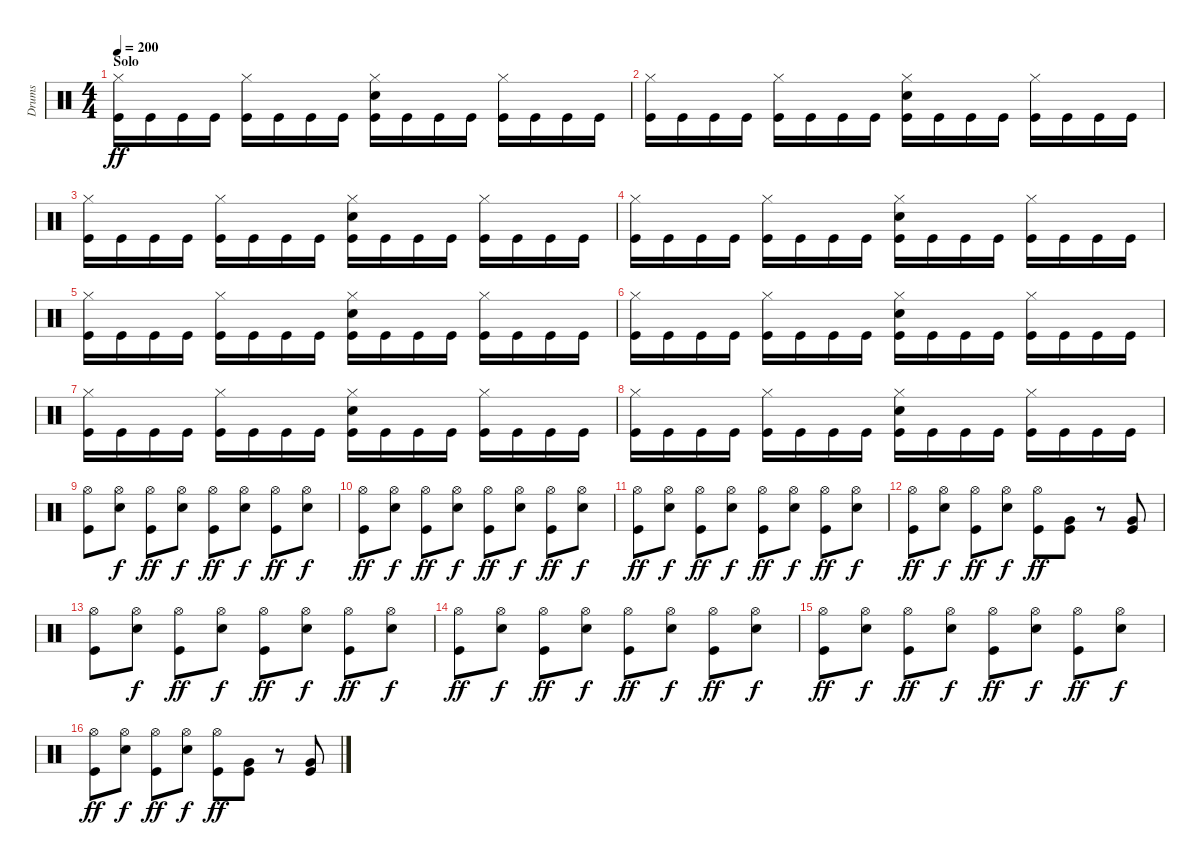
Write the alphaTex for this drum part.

\track ("Drums" "Drums") {instrument percussion}
\staff {score}
\articulation defaults
\ts (4 4)
\section ("" "Solo")
\tempo 200
\clef neutral
\ks c
("Hi-Hat (closed)" "Kick (hit)").16{dy ff} "Kick (hit)".16 "Kick (hit)".16 "Kick (hit)".16 ("Hi-Hat (closed)" "Kick (hit)").16 "Kick (hit)".16 "Kick (hit)".16 "Kick (hit)".16 ("Hi-Hat (closed)" "Electric Snare (hit)" "Kick (hit)").16 "Kick (hit)".16 "Kick (hit)".16 "Kick (hit)".16 ("Hi-Hat (closed)" "Kick (hit)").16 "Kick (hit)".16 "Kick (hit)".16 "Kick (hit)".16 |
("Hi-Hat (closed)" "Kick (hit)").16 "Kick (hit)".16 "Kick (hit)".16 "Kick (hit)".16 ("Hi-Hat (closed)" "Kick (hit)").16 "Kick (hit)".16 "Kick (hit)".16 "Kick (hit)".16 ("Hi-Hat (closed)" "Electric Snare (hit)" "Kick (hit)").16 "Kick (hit)".16 "Kick (hit)".16 "Kick (hit)".16 ("Hi-Hat (closed)" "Kick (hit)").16 "Kick (hit)".16 "Kick (hit)".16 "Kick (hit)".16 |
("Hi-Hat (closed)" "Kick (hit)").16 "Kick (hit)".16 "Kick (hit)".16 "Kick (hit)".16 ("Hi-Hat (closed)" "Kick (hit)").16 "Kick (hit)".16 "Kick (hit)".16 "Kick (hit)".16 ("Hi-Hat (closed)" "Electric Snare (hit)" "Kick (hit)").16 "Kick (hit)".16 "Kick (hit)".16 "Kick (hit)".16 ("Hi-Hat (closed)" "Kick (hit)").16 "Kick (hit)".16 "Kick (hit)".16 "Kick (hit)".16 |
("Hi-Hat (closed)" "Kick (hit)").16 "Kick (hit)".16 "Kick (hit)".16 "Kick (hit)".16 ("Hi-Hat (closed)" "Kick (hit)").16 "Kick (hit)".16 "Kick (hit)".16 "Kick (hit)".16 ("Hi-Hat (closed)" "Electric Snare (hit)" "Kick (hit)").16 "Kick (hit)".16 "Kick (hit)".16 "Kick (hit)".16 ("Hi-Hat (closed)" "Kick (hit)").16 "Kick (hit)".16 "Kick (hit)".16 "Kick (hit)".16 |
("Hi-Hat (closed)" "Kick (hit)").16 "Kick (hit)".16 "Kick (hit)".16 "Kick (hit)".16 ("Hi-Hat (closed)" "Kick (hit)").16 "Kick (hit)".16 "Kick (hit)".16 "Kick (hit)".16 ("Hi-Hat (closed)" "Electric Snare (hit)" "Kick (hit)").16 "Kick (hit)".16 "Kick (hit)".16 "Kick (hit)".16 ("Hi-Hat (closed)" "Kick (hit)").16 "Kick (hit)".16 "Kick (hit)".16 "Kick (hit)".16 |
("Hi-Hat (closed)" "Kick (hit)").16 "Kick (hit)".16 "Kick (hit)".16 "Kick (hit)".16 ("Hi-Hat (closed)" "Kick (hit)").16 "Kick (hit)".16 "Kick (hit)".16 "Kick (hit)".16 ("Hi-Hat (closed)" "Electric Snare (hit)" "Kick (hit)").16 "Kick (hit)".16 "Kick (hit)".16 "Kick (hit)".16 ("Hi-Hat (closed)" "Kick (hit)").16 "Kick (hit)".16 "Kick (hit)".16 "Kick (hit)".16 |
("Hi-Hat (closed)" "Kick (hit)").16 "Kick (hit)".16 "Kick (hit)".16 "Kick (hit)".16 ("Hi-Hat (closed)" "Kick (hit)").16 "Kick (hit)".16 "Kick (hit)".16 "Kick (hit)".16 ("Hi-Hat (closed)" "Electric Snare (hit)" "Kick (hit)").16 "Kick (hit)".16 "Kick (hit)".16 "Kick (hit)".16 ("Hi-Hat (closed)" "Kick (hit)").16 "Kick (hit)".16 "Kick (hit)".16 "Kick (hit)".16 |
("Hi-Hat (closed)" "Kick (hit)").16 "Kick (hit)".16 "Kick (hit)".16 "Kick (hit)".16 ("Hi-Hat (closed)" "Kick (hit)").16 "Kick (hit)".16 "Kick (hit)".16 "Kick (hit)".16 ("Hi-Hat (closed)" "Electric Snare (hit)" "Kick (hit)").16 "Kick (hit)".16 "Kick (hit)".16 "Kick (hit)".16 ("Hi-Hat (closed)" "Kick (hit)").16 "Kick (hit)".16 "Kick (hit)".16 "Kick (hit)".16 |
("Hi-Hat (open)" "Kick (hit)").8 ("Hi-Hat (open)" "Electric Snare (hit)").8{dy f} ("Hi-Hat (open)" "Kick (hit)").8{dy ff} ("Hi-Hat (open)" "Electric Snare (hit)").8{dy f} ("Hi-Hat (open)" "Kick (hit)").8{dy ff} ("Hi-Hat (open)" "Electric Snare (hit)").8{dy f} ("Hi-Hat (open)" "Kick (hit)").8{dy ff} ("Hi-Hat (open)" "Electric Snare (hit)").8{dy f} |
("Hi-Hat (open)" "Kick (hit)").8{dy ff} ("Hi-Hat (open)" "Electric Snare (hit)").8{dy f} ("Hi-Hat (open)" "Kick (hit)").8{dy ff} ("Hi-Hat (open)" "Electric Snare (hit)").8{dy f} ("Hi-Hat (open)" "Kick (hit)").8{dy ff} ("Hi-Hat (open)" "Electric Snare (hit)").8{dy f} ("Hi-Hat (open)" "Kick (hit)").8{dy ff} ("Hi-Hat (open)" "Electric Snare (hit)").8{dy f} |
("Hi-Hat (open)" "Kick (hit)").8{dy ff} ("Hi-Hat (open)" "Electric Snare (hit)").8{dy f} ("Hi-Hat (open)" "Kick (hit)").8{dy ff} ("Hi-Hat (open)" "Electric Snare (hit)").8{dy f} ("Hi-Hat (open)" "Kick (hit)").8{dy ff} ("Hi-Hat (open)" "Electric Snare (hit)").8{dy f} ("Hi-Hat (open)" "Kick (hit)").8{dy ff} ("Hi-Hat (open)" "Electric Snare (hit)").8{dy f} |
("Hi-Hat (open)" "Kick (hit)").8{dy ff} ("Hi-Hat (open)" "Electric Snare (hit)").8{dy f} ("Hi-Hat (open)" "Kick (hit)").8{dy ff} ("Hi-Hat (open)" "Electric Snare (hit)").8{dy f} ("Hi-Hat (open)" "Kick (hit)").8{dy ff} ("Very Low Tom (hit)" "Kick (hit)").8 r.8 ("Very Low Tom (hit)" "Kick (hit)").8 |
("Hi-Hat (open)" "Kick (hit)").8 ("Hi-Hat (open)" "Electric Snare (hit)").8{dy f} ("Hi-Hat (open)" "Kick (hit)").8{dy ff} ("Hi-Hat (open)" "Electric Snare (hit)").8{dy f} ("Hi-Hat (open)" "Kick (hit)").8{dy ff} ("Hi-Hat (open)" "Electric Snare (hit)").8{dy f} ("Hi-Hat (open)" "Kick (hit)").8{dy ff} ("Hi-Hat (open)" "Electric Snare (hit)").8{dy f} |
("Hi-Hat (open)" "Kick (hit)").8{dy ff} ("Hi-Hat (open)" "Electric Snare (hit)").8{dy f} ("Hi-Hat (open)" "Kick (hit)").8{dy ff} ("Hi-Hat (open)" "Electric Snare (hit)").8{dy f} ("Hi-Hat (open)" "Kick (hit)").8{dy ff} ("Hi-Hat (open)" "Electric Snare (hit)").8{dy f} ("Hi-Hat (open)" "Kick (hit)").8{dy ff} ("Hi-Hat (open)" "Electric Snare (hit)").8{dy f} |
("Hi-Hat (open)" "Kick (hit)").8{dy ff} ("Hi-Hat (open)" "Electric Snare (hit)").8{dy f} ("Hi-Hat (open)" "Kick (hit)").8{dy ff} ("Hi-Hat (open)" "Electric Snare (hit)").8{dy f} ("Hi-Hat (open)" "Kick (hit)").8{dy ff} ("Hi-Hat (open)" "Electric Snare (hit)").8{dy f} ("Hi-Hat (open)" "Kick (hit)").8{dy ff} ("Hi-Hat (open)" "Electric Snare (hit)").8{dy f} |
("Hi-Hat (open)" "Kick (hit)").8{dy ff} ("Hi-Hat (open)" "Electric Snare (hit)").8{dy f} ("Hi-Hat (open)" "Kick (hit)").8{dy ff} ("Hi-Hat (open)" "Electric Snare (hit)").8{dy f} ("Hi-Hat (open)" "Kick (hit)").8{dy ff} ("Very Low Tom (hit)" "Kick (hit)").8 r.8 ("Very Low Tom (hit)" "Kick (hit)").8
